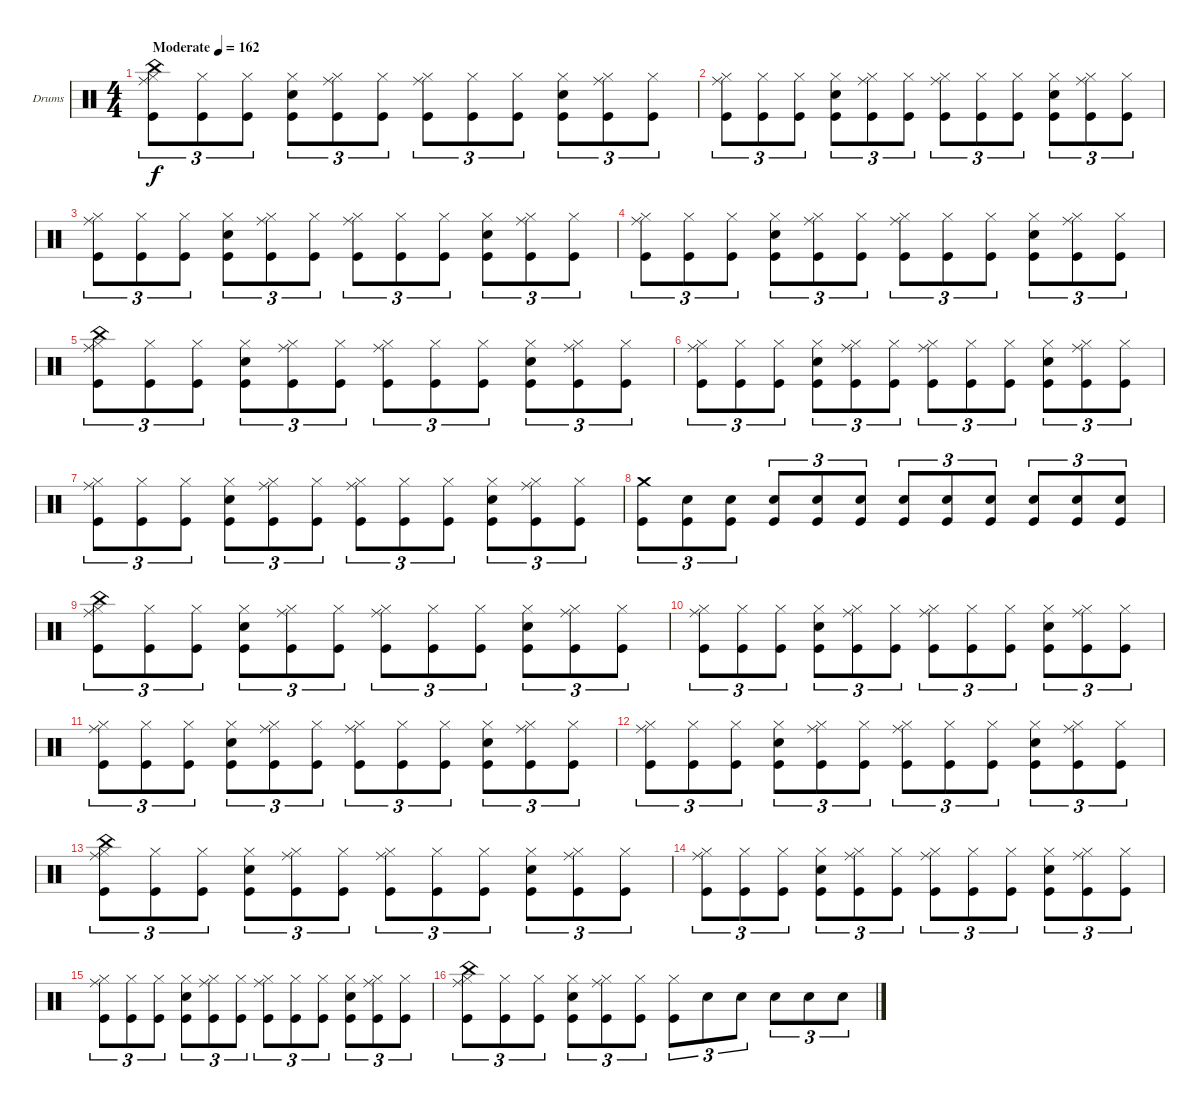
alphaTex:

\bracketExtendMode groupsimilarinstruments
\firstSystemTrackNameOrientation horizontal
\otherSystemsTrackNameOrientation horizontal
\track ("Drumkit" "Drums") {instrument percussion}
\staff {score}
\articulation defaults
\ts (4 4)
\beaming (8 2 2 2 2)
\tempo (162 "Moderate")
\clef neutral
\ks c
("Kick (hit)" "Ride (middle)" "China (hit)" "Hi-Hat (closed)").8{tu (3 2) dy f} ("Kick (hit)" "Hi-Hat (closed)").8{tu (3 2)} ("Kick (hit)" "Hi-Hat (closed)").8{tu (3 2)} ("Kick (hit)" "Snare (hit) 2" "Hi-Hat (closed)").8{tu (3 2)} ("Kick (hit)" "Ride (middle)" "Hi-Hat (closed)").8{tu (3 2)} ("Kick (hit)" "Hi-Hat (closed)").8{tu (3 2)} ("Kick (hit)" "Ride (middle)" "Hi-Hat (closed)").8{tu (3 2)} ("Kick (hit)" "Hi-Hat (closed)").8{tu (3 2)} ("Kick (hit)" "Hi-Hat (closed)").8{tu (3 2)} ("Kick (hit)" "Snare (hit) 2" "Hi-Hat (closed)").8{tu (3 2)} ("Kick (hit)" "Ride (middle)" "Hi-Hat (closed)").8{tu (3 2)} ("Kick (hit)" "Hi-Hat (closed)").8{tu (3 2)} |
("Kick (hit)" "Ride (middle)" "Hi-Hat (closed)").8{tu (3 2)} ("Kick (hit)" "Hi-Hat (closed)").8{tu (3 2)} ("Kick (hit)" "Hi-Hat (closed)").8{tu (3 2)} ("Kick (hit)" "Snare (hit) 2" "Hi-Hat (closed)").8{tu (3 2)} ("Kick (hit)" "Ride (middle)" "Hi-Hat (closed)").8{tu (3 2)} ("Kick (hit)" "Hi-Hat (closed)").8{tu (3 2)} ("Kick (hit)" "Ride (middle)" "Hi-Hat (closed)").8{tu (3 2)} ("Kick (hit)" "Hi-Hat (closed)").8{tu (3 2)} ("Kick (hit)" "Hi-Hat (closed)").8{tu (3 2)} ("Kick (hit)" "Snare (hit) 2" "Hi-Hat (closed)").8{tu (3 2)} ("Kick (hit)" "Ride (middle)" "Hi-Hat (closed)").8{tu (3 2)} ("Kick (hit)" "Hi-Hat (closed)").8{tu (3 2)} |
("Kick (hit)" "Ride (middle)" "Hi-Hat (closed)").8{tu (3 2)} ("Kick (hit)" "Hi-Hat (closed)").8{tu (3 2)} ("Kick (hit)" "Hi-Hat (closed)").8{tu (3 2)} ("Kick (hit)" "Snare (hit) 2" "Hi-Hat (closed)").8{tu (3 2)} ("Kick (hit)" "Ride (middle)" "Hi-Hat (closed)").8{tu (3 2)} ("Kick (hit)" "Hi-Hat (closed)").8{tu (3 2)} ("Kick (hit)" "Ride (middle)" "Hi-Hat (closed)").8{tu (3 2)} ("Kick (hit)" "Hi-Hat (closed)").8{tu (3 2)} ("Kick (hit)" "Hi-Hat (closed)").8{tu (3 2)} ("Kick (hit)" "Snare (hit) 2" "Hi-Hat (closed)").8{tu (3 2)} ("Kick (hit)" "Ride (middle)" "Hi-Hat (closed)").8{tu (3 2)} ("Kick (hit)" "Hi-Hat (closed)").8{tu (3 2)} |
("Kick (hit)" "Ride (middle)" "Hi-Hat (closed)").8{tu (3 2)} ("Kick (hit)" "Hi-Hat (closed)").8{tu (3 2)} ("Kick (hit)" "Hi-Hat (closed)").8{tu (3 2)} ("Kick (hit)" "Snare (hit) 2" "Hi-Hat (closed)").8{tu (3 2)} ("Kick (hit)" "Ride (middle)" "Hi-Hat (closed)").8{tu (3 2)} ("Kick (hit)" "Hi-Hat (closed)").8{tu (3 2)} ("Kick (hit)" "Ride (middle)" "Hi-Hat (closed)").8{tu (3 2)} ("Kick (hit)" "Hi-Hat (closed)").8{tu (3 2)} ("Kick (hit)" "Hi-Hat (closed)").8{tu (3 2)} ("Kick (hit)" "Snare (hit) 2" "Hi-Hat (closed)").8{tu (3 2)} ("Kick (hit)" "Ride (middle)" "Hi-Hat (closed)").8{tu (3 2)} ("Kick (hit)" "Hi-Hat (closed)").8{tu (3 2)} |
("Kick (hit)" "Ride (middle)" "China (hit)" "Hi-Hat (closed)").8{tu (3 2)} ("Kick (hit)" "Hi-Hat (closed)").8{tu (3 2)} ("Kick (hit)" "Hi-Hat (closed)").8{tu (3 2)} ("Kick (hit)" "Snare (hit) 2" "Hi-Hat (closed)").8{tu (3 2)} ("Kick (hit)" "Ride (middle)" "Hi-Hat (closed)").8{tu (3 2)} ("Kick (hit)" "Hi-Hat (closed)").8{tu (3 2)} ("Kick (hit)" "Ride (middle)" "Hi-Hat (closed)").8{tu (3 2)} ("Kick (hit)" "Hi-Hat (closed)").8{tu (3 2)} ("Kick (hit)" "Hi-Hat (closed)").8{tu (3 2)} ("Kick (hit)" "Snare (hit) 2" "Hi-Hat (closed)").8{tu (3 2)} ("Kick (hit)" "Ride (middle)" "Hi-Hat (closed)").8{tu (3 2)} ("Kick (hit)" "Hi-Hat (closed)").8{tu (3 2)} |
("Kick (hit)" "Ride (middle)" "Hi-Hat (closed)").8{tu (3 2)} ("Kick (hit)" "Hi-Hat (closed)").8{tu (3 2)} ("Kick (hit)" "Hi-Hat (closed)").8{tu (3 2)} ("Kick (hit)" "Snare (hit) 2" "Hi-Hat (closed)").8{tu (3 2)} ("Kick (hit)" "Ride (middle)" "Hi-Hat (closed)").8{tu (3 2)} ("Kick (hit)" "Hi-Hat (closed)").8{tu (3 2)} ("Kick (hit)" "Ride (middle)" "Hi-Hat (closed)").8{tu (3 2)} ("Kick (hit)" "Hi-Hat (closed)").8{tu (3 2)} ("Kick (hit)" "Hi-Hat (closed)").8{tu (3 2)} ("Kick (hit)" "Snare (hit) 2" "Hi-Hat (closed)").8{tu (3 2)} ("Kick (hit)" "Ride (middle)" "Hi-Hat (closed)").8{tu (3 2)} ("Kick (hit)" "Hi-Hat (closed)").8{tu (3 2)} |
("Kick (hit)" "Ride (middle)" "Hi-Hat (closed)").8{tu (3 2)} ("Kick (hit)" "Hi-Hat (closed)").8{tu (3 2)} ("Kick (hit)" "Hi-Hat (closed)").8{tu (3 2)} ("Kick (hit)" "Snare (hit) 2" "Hi-Hat (closed)").8{tu (3 2)} ("Kick (hit)" "Ride (middle)" "Hi-Hat (closed)").8{tu (3 2)} ("Kick (hit)" "Hi-Hat (closed)").8{tu (3 2)} ("Kick (hit)" "Ride (middle)" "Hi-Hat (closed)").8{tu (3 2)} ("Kick (hit)" "Hi-Hat (closed)").8{tu (3 2)} ("Kick (hit)" "Hi-Hat (closed)").8{tu (3 2)} ("Kick (hit)" "Snare (hit) 2" "Hi-Hat (closed)").8{tu (3 2)} ("Kick (hit)" "Ride (middle)" "Hi-Hat (closed)").8{tu (3 2)} ("Kick (hit)" "Hi-Hat (closed)").8{tu (3 2)} |
("Kick (hit)" "Crash medium (hit)").8{tu (3 2)} ("Kick (hit)" "Snare (hit) 2").8{tu (3 2)} ("Kick (hit)" "Snare (hit) 2").8{tu (3 2)} ("Kick (hit)" "Snare (hit) 2").8{tu (3 2)} ("Kick (hit)" "Snare (hit) 2").8{tu (3 2)} ("Kick (hit)" "Snare (hit) 2").8{tu (3 2)} ("Kick (hit)" "Snare (hit) 2").8{tu (3 2)} ("Kick (hit)" "Snare (hit) 2").8{tu (3 2)} ("Kick (hit)" "Snare (hit) 2").8{tu (3 2)} ("Kick (hit)" "Snare (hit) 2").8{tu (3 2)} ("Kick (hit)" "Snare (hit) 2").8{tu (3 2)} ("Kick (hit)" "Snare (hit) 2").8{tu (3 2)} |
("Kick (hit)" "Ride (middle)" "China (hit)" "Hi-Hat (closed)").8{tu (3 2)} ("Kick (hit)" "Hi-Hat (closed)").8{tu (3 2)} ("Kick (hit)" "Hi-Hat (closed)").8{tu (3 2)} ("Kick (hit)" "Snare (hit) 2" "Hi-Hat (closed)").8{tu (3 2)} ("Kick (hit)" "Ride (middle)" "Hi-Hat (closed)").8{tu (3 2)} ("Kick (hit)" "Hi-Hat (closed)").8{tu (3 2)} ("Kick (hit)" "Ride (middle)" "Hi-Hat (closed)").8{tu (3 2)} ("Kick (hit)" "Hi-Hat (closed)").8{tu (3 2)} ("Kick (hit)" "Hi-Hat (closed)").8{tu (3 2)} ("Kick (hit)" "Snare (hit) 2" "Hi-Hat (closed)").8{tu (3 2)} ("Kick (hit)" "Ride (middle)" "Hi-Hat (closed)").8{tu (3 2)} ("Kick (hit)" "Hi-Hat (closed)").8{tu (3 2)} |
("Kick (hit)" "Ride (middle)" "Hi-Hat (closed)").8{tu (3 2)} ("Kick (hit)" "Hi-Hat (closed)").8{tu (3 2)} ("Kick (hit)" "Hi-Hat (closed)").8{tu (3 2)} ("Kick (hit)" "Snare (hit) 2" "Hi-Hat (closed)").8{tu (3 2)} ("Kick (hit)" "Ride (middle)" "Hi-Hat (closed)").8{tu (3 2)} ("Kick (hit)" "Hi-Hat (closed)").8{tu (3 2)} ("Kick (hit)" "Ride (middle)" "Hi-Hat (closed)").8{tu (3 2)} ("Kick (hit)" "Hi-Hat (closed)").8{tu (3 2)} ("Kick (hit)" "Hi-Hat (closed)").8{tu (3 2)} ("Kick (hit)" "Snare (hit) 2" "Hi-Hat (closed)").8{tu (3 2)} ("Kick (hit)" "Ride (middle)" "Hi-Hat (closed)").8{tu (3 2)} ("Kick (hit)" "Hi-Hat (closed)").8{tu (3 2)} |
("Kick (hit)" "Ride (middle)" "Hi-Hat (closed)").8{tu (3 2)} ("Kick (hit)" "Hi-Hat (closed)").8{tu (3 2)} ("Kick (hit)" "Hi-Hat (closed)").8{tu (3 2)} ("Kick (hit)" "Snare (hit) 2" "Hi-Hat (closed)").8{tu (3 2)} ("Kick (hit)" "Ride (middle)" "Hi-Hat (closed)").8{tu (3 2)} ("Kick (hit)" "Hi-Hat (closed)").8{tu (3 2)} ("Kick (hit)" "Ride (middle)" "Hi-Hat (closed)").8{tu (3 2)} ("Kick (hit)" "Hi-Hat (closed)").8{tu (3 2)} ("Kick (hit)" "Hi-Hat (closed)").8{tu (3 2)} ("Kick (hit)" "Snare (hit) 2" "Hi-Hat (closed)").8{tu (3 2)} ("Kick (hit)" "Ride (middle)" "Hi-Hat (closed)").8{tu (3 2)} ("Kick (hit)" "Hi-Hat (closed)").8{tu (3 2)} |
("Kick (hit)" "Ride (middle)" "Hi-Hat (closed)").8{tu (3 2)} ("Kick (hit)" "Hi-Hat (closed)").8{tu (3 2)} ("Kick (hit)" "Hi-Hat (closed)").8{tu (3 2)} ("Kick (hit)" "Snare (hit) 2" "Hi-Hat (closed)").8{tu (3 2)} ("Kick (hit)" "Ride (middle)" "Hi-Hat (closed)").8{tu (3 2)} ("Kick (hit)" "Hi-Hat (closed)").8{tu (3 2)} ("Kick (hit)" "Ride (middle)" "Hi-Hat (closed)").8{tu (3 2)} ("Kick (hit)" "Hi-Hat (closed)").8{tu (3 2)} ("Kick (hit)" "Hi-Hat (closed)").8{tu (3 2)} ("Kick (hit)" "Snare (hit) 2" "Hi-Hat (closed)").8{tu (3 2)} ("Kick (hit)" "Ride (middle)" "Hi-Hat (closed)").8{tu (3 2)} ("Kick (hit)" "Hi-Hat (closed)").8{tu (3 2)} |
("Kick (hit)" "Ride (middle)" "China (hit)" "Hi-Hat (closed)").8{tu (3 2)} ("Kick (hit)" "Hi-Hat (closed)").8{tu (3 2)} ("Kick (hit)" "Hi-Hat (closed)").8{tu (3 2)} ("Kick (hit)" "Snare (hit) 2" "Hi-Hat (closed)").8{tu (3 2)} ("Kick (hit)" "Ride (middle)" "Hi-Hat (closed)").8{tu (3 2)} ("Kick (hit)" "Hi-Hat (closed)").8{tu (3 2)} ("Kick (hit)" "Ride (middle)" "Hi-Hat (closed)").8{tu (3 2)} ("Kick (hit)" "Hi-Hat (closed)").8{tu (3 2)} ("Kick (hit)" "Hi-Hat (closed)").8{tu (3 2)} ("Kick (hit)" "Snare (hit) 2" "Hi-Hat (closed)").8{tu (3 2)} ("Kick (hit)" "Ride (middle)" "Hi-Hat (closed)").8{tu (3 2)} ("Kick (hit)" "Hi-Hat (closed)").8{tu (3 2)} |
("Kick (hit)" "Ride (middle)" "Hi-Hat (closed)").8{tu (3 2)} ("Kick (hit)" "Hi-Hat (closed)").8{tu (3 2)} ("Kick (hit)" "Hi-Hat (closed)").8{tu (3 2)} ("Kick (hit)" "Snare (hit) 2" "Hi-Hat (closed)").8{tu (3 2)} ("Kick (hit)" "Ride (middle)" "Hi-Hat (closed)").8{tu (3 2)} ("Kick (hit)" "Hi-Hat (closed)").8{tu (3 2)} ("Kick (hit)" "Ride (middle)" "Hi-Hat (closed)").8{tu (3 2)} ("Kick (hit)" "Hi-Hat (closed)").8{tu (3 2)} ("Kick (hit)" "Hi-Hat (closed)").8{tu (3 2)} ("Kick (hit)" "Snare (hit) 2" "Hi-Hat (closed)").8{tu (3 2)} ("Kick (hit)" "Ride (middle)" "Hi-Hat (closed)").8{tu (3 2)} ("Kick (hit)" "Hi-Hat (closed)").8{tu (3 2)} |
("Kick (hit)" "Ride (middle)" "Hi-Hat (closed)").8{tu (3 2)} ("Kick (hit)" "Hi-Hat (closed)").8{tu (3 2)} ("Kick (hit)" "Hi-Hat (closed)").8{tu (3 2)} ("Kick (hit)" "Snare (hit) 2" "Hi-Hat (closed)").8{tu (3 2)} ("Kick (hit)" "Ride (middle)" "Hi-Hat (closed)").8{tu (3 2)} ("Kick (hit)" "Hi-Hat (closed)").8{tu (3 2)} ("Kick (hit)" "Ride (middle)" "Hi-Hat (closed)").8{tu (3 2)} ("Kick (hit)" "Hi-Hat (closed)").8{tu (3 2)} ("Kick (hit)" "Hi-Hat (closed)").8{tu (3 2)} ("Kick (hit)" "Snare (hit) 2" "Hi-Hat (closed)").8{tu (3 2)} ("Kick (hit)" "Ride (middle)" "Hi-Hat (closed)").8{tu (3 2)} ("Kick (hit)" "Hi-Hat (closed)").8{tu (3 2)} |
("Kick (hit)" "Ride (middle)" "China (hit)" "Hi-Hat (closed)").8{tu (3 2)} ("Kick (hit)" "Hi-Hat (closed)").8{tu (3 2)} ("Kick (hit)" "Hi-Hat (closed)").8{tu (3 2)} ("Kick (hit)" "Snare (hit) 2" "Hi-Hat (closed)").8{tu (3 2)} ("Kick (hit)" "Ride (middle)" "Hi-Hat (closed)").8{tu (3 2)} ("Kick (hit)" "Hi-Hat (closed)").8{tu (3 2)} ("Kick (hit)" "Hi-Hat (closed)").8{tu (3 2)} "Snare (hit) 2".8{tu (3 2)} "Snare (hit) 2".8{tu (3 2)} "Snare (hit) 2".8{tu (3 2)} "Snare (hit) 2".8{tu (3 2)} "Snare (hit) 2".8{tu (3 2)}
